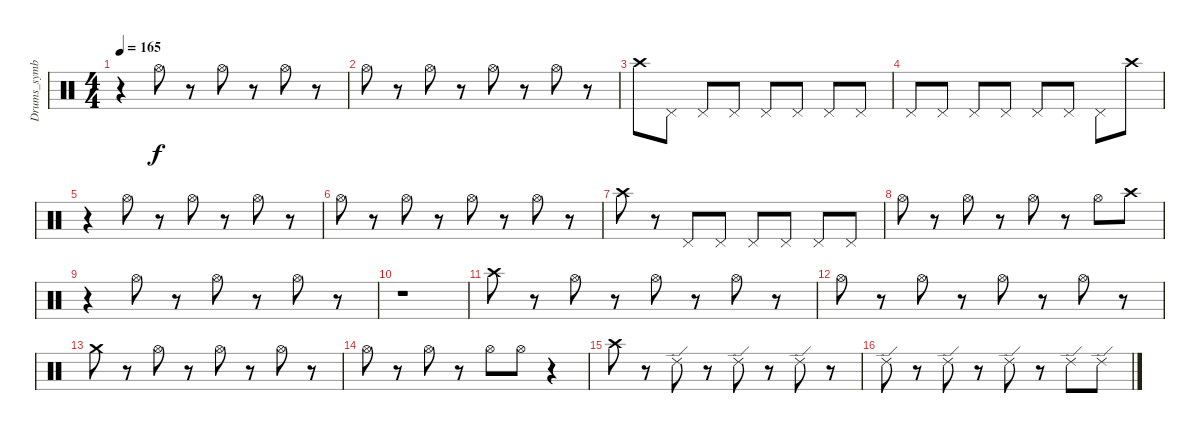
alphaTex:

\track ("Drums_symbal" "Drums_symb") {instrument percussion}
\staff {score}
\articulation defaults
\ts (4 4)
\tempo 165
\clef neutral
\ks c
r.4{dy f} "Hi-Hat (open)".8 r.8 "Hi-Hat (open)".8 r.8 "Hi-Hat (open)".8 r.8 |
"Hi-Hat (open)".8 r.8 "Hi-Hat (open)".8 r.8 "Hi-Hat (open)".8 r.8 "Hi-Hat (open)".8 r.8 |
"Crash high (hit)".8 "Pedal Hi-Hat (hit)".8 "Pedal Hi-Hat (hit)".8 "Pedal Hi-Hat (hit)".8 "Pedal Hi-Hat (hit)".8 "Pedal Hi-Hat (hit)".8 "Pedal Hi-Hat (hit)".8 "Pedal Hi-Hat (hit)".8 |
"Pedal Hi-Hat (hit)".8 "Pedal Hi-Hat (hit)".8 "Pedal Hi-Hat (hit)".8 "Pedal Hi-Hat (hit)".8 "Pedal Hi-Hat (hit)".8 "Pedal Hi-Hat (hit)".8 "Pedal Hi-Hat (hit)".8 "Crash high (hit)".8 |
r.4 "Hi-Hat (open)".8 r.8 "Hi-Hat (open)".8 r.8 "Hi-Hat (open)".8 r.8 |
"Hi-Hat (open)".8 r.8 "Hi-Hat (open)".8 r.8 "Hi-Hat (open)".8 r.8 "Hi-Hat (open)".8 r.8 |
"Crash high (hit)".8 r.8 "Pedal Hi-Hat (hit)".8 "Pedal Hi-Hat (hit)".8 "Pedal Hi-Hat (hit)".8 "Pedal Hi-Hat (hit)".8 "Pedal Hi-Hat (hit)".8 "Pedal Hi-Hat (hit)".8 |
"Hi-Hat (open)".8 r.8 "Hi-Hat (open)".8 r.8 "Hi-Hat (open)".8 r.8 "Hi-Hat (open)".8 "Crash high (hit)".8 |
r.4 "Hi-Hat (open)".8 r.8 "Hi-Hat (open)".8 r.8 "Hi-Hat (open)".8 r.8 |
r.1 |
"Crash high (hit)".8 r.8 "Hi-Hat (open)".8 r.8 "Hi-Hat (open)".8 r.8 "Hi-Hat (open)".8 r.8 |
"Hi-Hat (open)".8 r.8 "Hi-Hat (open)".8 r.8 "Hi-Hat (open)".8 r.8 "Hi-Hat (open)".8 r.8 |
"Crash medium (hit)".8 r.8 "Hi-Hat (open)".8 r.8 "Hi-Hat (open)".8 r.8 "Hi-Hat (open)".8 r.8 |
"Hi-Hat (open)".8 r.8 "Hi-Hat (open)".8 r.8 "Hi-Hat (open)".8 "Hi-Hat (open)".8 r.4 |
"Crash high (hit)".8 r.8 "Ride (edge) 2".8 r.8 "Ride (edge) 2".8 r.8 "Ride (edge) 2".8 r.8 |
"Ride (edge) 2".8 r.8 "Ride (edge) 2".8 r.8 "Ride (edge) 2".8 r.8 "Ride (edge) 2".8 "Ride (edge) 2".8
